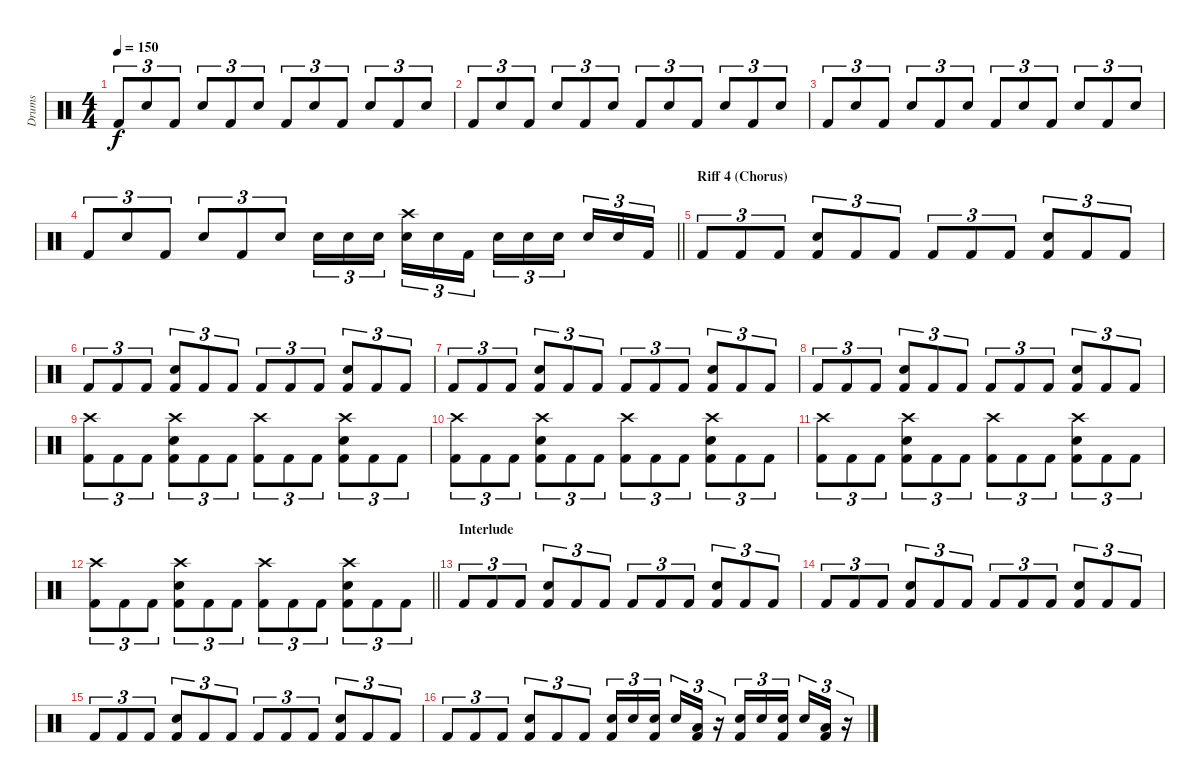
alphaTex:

\track ("Drums" "Drums") {instrument percussion}
\staff {score}
\articulation defaults
\ts (4 4)
\tempo 150
\clef neutral
\ks c "Kick (hit) 2".8{tu (3 2) dy f} "Snare (hit) 2".8{tu (3 2)} "Kick (hit) 2".8{tu (3 2)} "Snare (hit) 2".8{tu (3 2)} "Kick (hit) 2".8{tu (3 2)} "Snare (hit) 2".8{tu (3 2)} "Kick (hit) 2".8{tu (3 2)} "Snare (hit) 2".8{tu (3 2)} "Kick (hit) 2".8{tu (3 2)} "Snare (hit) 2".8{tu (3 2)} "Kick (hit) 2".8{tu (3 2)} "Snare (hit) 2".8{tu (3 2)}
|
"Kick (hit) 2".8{tu (3 2)} "Snare (hit) 2".8{tu (3 2)} "Kick (hit) 2".8{tu (3 2)} "Snare (hit) 2".8{tu (3 2)} "Kick (hit) 2".8{tu (3 2)} "Snare (hit) 2".8{tu (3 2)} "Kick (hit) 2".8{tu (3 2)} "Snare (hit) 2".8{tu (3 2)} "Kick (hit) 2".8{tu (3 2)} "Snare (hit) 2".8{tu (3 2)} "Kick (hit) 2".8{tu (3 2)} "Snare (hit) 2".8{tu (3 2)} |
"Kick (hit) 2".8{tu (3 2)} "Snare (hit) 2".8{tu (3 2)} "Kick (hit) 2".8{tu (3 2)} "Snare (hit) 2".8{tu (3 2)} "Kick (hit) 2".8{tu (3 2)} "Snare (hit) 2".8{tu (3 2)} "Kick (hit) 2".8{tu (3 2)} "Snare (hit) 2".8{tu (3 2)} "Kick (hit) 2".8{tu (3 2)} "Snare (hit) 2".8{tu (3 2)} "Kick (hit) 2".8{tu (3 2)} "Snare (hit) 2".8{tu (3 2)} |
\barLineRight lightlight "Kick (hit) 2".8{tu (3 2)} "Snare (hit) 2".8{tu (3 2)} "Kick (hit) 2".8{tu (3 2)} "Snare (hit) 2".8{tu (3 2)} "Kick (hit) 2".8{tu (3 2)} "Snare (hit) 2".8{tu (3 2)} "Snare (hit) 2".16{tu (3 2)} "Snare (hit) 2".16{tu (3 2)} "Snare (hit) 2".16{tu (3 2) beam splitsecondary}
("Crash high (hit)" "Snare (hit) 2").16{tu (3 2)} "Snare (hit) 2".16{tu (3 2)} "Kick (hit) 2".16{tu (3 2)} "Snare (hit) 2".16{tu (3 2)} "Snare (hit) 2".16{tu (3 2)} "Snare (hit) 2".16{tu (3 2) beam splitsecondary} "Snare (hit) 2".16{tu (3 2)} "Snare (hit) 2".16{tu (3 2)} "Kick (hit) 2".16{tu (3 2)} |
\section ("" "Riff 4 (Chorus)")
"Kick (hit) 2".8{tu (3 2)} "Kick (hit) 2".8{tu (3 2)} "Kick (hit) 2".8{tu (3 2)} ("Snare (hit) 2" "Kick (hit) 2").8{tu (3 2)} "Kick (hit) 2".8{tu (3 2)} "Kick (hit) 2".8{tu (3 2)} "Kick (hit) 2".8{tu (3 2)} "Kick (hit) 2".8{tu (3 2)} "Kick (hit) 2".8{tu (3 2)} ("Snare (hit) 2" "Kick (hit) 2").8{tu (3 2)} "Kick (hit) 2".8{tu (3 2)} "Kick (hit) 2".8{tu (3 2)} |
"Kick (hit) 2".8{tu (3 2)} "Kick (hit) 2".8{tu (3 2)} "Kick (hit) 2".8{tu (3 2)} ("Snare (hit) 2" "Kick (hit) 2").8{tu (3 2)} "Kick (hit) 2".8{tu (3 2)} "Kick (hit) 2".8{tu (3 2)} "Kick (hit) 2".8{tu (3 2)} "Kick (hit) 2".8{tu (3 2)} "Kick (hit) 2".8{tu (3 2)} ("Snare (hit) 2" "Kick (hit) 2").8{tu (3 2)} "Kick (hit) 2".8{tu (3 2)} "Kick (hit) 2".8{tu (3 2)} |
"Kick (hit) 2".8{tu (3 2)} "Kick (hit) 2".8{tu (3 2)} "Kick (hit) 2".8{tu (3 2)} ("Snare (hit) 2" "Kick (hit) 2").8{tu (3 2)} "Kick (hit) 2".8{tu (3 2)} "Kick (hit) 2".8{tu (3 2)} "Kick (hit) 2".8{tu (3 2)} "Kick (hit) 2".8{tu (3 2)} "Kick (hit) 2".8{tu (3 2)} ("Snare (hit) 2" "Kick (hit) 2").8{tu (3 2)} "Kick (hit) 2".8{tu (3 2)} "Kick (hit) 2".8{tu (3 2)} |
"Kick (hit) 2".8{tu (3 2)} "Kick (hit) 2".8{tu (3 2)} "Kick (hit) 2".8{tu (3 2)} ("Snare (hit) 2" "Kick (hit) 2").8{tu (3 2)} "Kick (hit) 2".8{tu (3 2)} "Kick (hit) 2".8{tu (3 2)} "Kick (hit) 2".8{tu (3 2)} "Kick (hit) 2".8{tu (3 2)} "Kick (hit) 2".8{tu (3 2)} ("Snare (hit) 2" "Kick (hit) 2").8{tu (3 2)} "Kick (hit) 2".8{tu (3 2)} "Kick (hit) 2".8{tu (3 2)} |
("Crash high (hit)" "Kick (hit) 2").8{tu (3 2)} "Kick (hit) 2".8{tu (3 2)} "Kick (hit) 2".8{tu (3 2)} ("Crash high (hit)" "Snare (hit) 2" "Kick (hit) 2").8{tu (3 2)} "Kick (hit) 2".8{tu (3 2)} "Kick (hit) 2".8{tu (3 2)} ("Crash high (hit)" "Kick (hit) 2").8{tu (3 2)} "Kick (hit) 2".8{tu (3 2)} "Kick (hit) 2".8{tu (3 2)} ("Crash high (hit)" "Snare (hit) 2" "Kick (hit) 2").8{tu (3 2)} "Kick (hit) 2".8{tu (3 2)} "Kick (hit) 2".8{tu (3 2)} |
("Crash high (hit)" "Kick (hit) 2").8{tu (3 2)} "Kick (hit) 2".8{tu (3 2)} "Kick (hit) 2".8{tu (3 2)} ("Crash high (hit)" "Snare (hit) 2" "Kick (hit) 2").8{tu (3 2)} "Kick (hit) 2".8{tu (3 2)} "Kick (hit) 2".8{tu (3 2)} ("Crash high (hit)" "Kick (hit) 2").8{tu (3 2)} "Kick (hit) 2".8{tu (3 2)} "Kick (hit) 2".8{tu (3 2)} ("Crash high (hit)" "Snare (hit) 2" "Kick (hit) 2").8{tu (3 2)} "Kick (hit) 2".8{tu (3 2)} "Kick (hit) 2".8{tu (3 2)} |
("Crash high (hit)" "Kick (hit) 2").8{tu (3 2)} "Kick (hit) 2".8{tu (3 2)} "Kick (hit) 2".8{tu (3 2)} ("Crash high (hit)" "Snare (hit) 2" "Kick (hit) 2").8{tu (3 2)} "Kick (hit) 2".8{tu (3 2)} "Kick (hit) 2".8{tu (3 2)} ("Crash high (hit)" "Kick (hit) 2").8{tu (3 2)} "Kick (hit) 2".8{tu (3 2)} "Kick (hit) 2".8{tu (3 2)} ("Crash high (hit)" "Snare (hit) 2" "Kick (hit) 2").8{tu (3 2)} "Kick (hit) 2".8{tu (3 2)} "Kick (hit) 2".8{tu (3 2)} |
\barLineRight lightlight
("Crash high (hit)" "Kick (hit) 2").8{tu (3 2)} "Kick (hit) 2".8{tu (3 2)} "Kick (hit) 2".8{tu (3 2)} ("Crash high (hit)" "Snare (hit) 2" "Kick (hit) 2").8{tu (3 2)} "Kick (hit) 2".8{tu (3 2)} "Kick (hit) 2".8{tu (3 2)} ("Crash high (hit)" "Kick (hit) 2").8{tu (3 2)} "Kick (hit) 2".8{tu (3 2)} "Kick (hit) 2".8{tu (3 2)} ("Crash high (hit)" "Snare (hit) 2" "Kick (hit) 2").8{tu (3 2)} "Kick (hit) 2".8{tu (3 2)} "Kick (hit) 2".8{tu (3 2)} |
\section ("" "Interlude")
"Kick (hit) 2".8{tu (3 2)} "Kick (hit) 2".8{tu (3 2)} "Kick (hit) 2".8{tu (3 2)} ("Snare (hit) 2" "Kick (hit) 2").8{tu (3 2)} "Kick (hit) 2".8{tu (3 2)} "Kick (hit) 2".8{tu (3 2)} "Kick (hit) 2".8{tu (3 2)} "Kick (hit) 2".8{tu (3 2)} "Kick (hit) 2".8{tu (3 2)} ("Snare (hit) 2" "Kick (hit) 2").8{tu (3 2)} "Kick (hit) 2".8{tu (3 2)} "Kick (hit) 2".8{tu (3 2)} |
"Kick (hit) 2".8{tu (3 2)} "Kick (hit) 2".8{tu (3 2)} "Kick (hit) 2".8{tu (3 2)} ("Snare (hit) 2" "Kick (hit) 2").8{tu (3 2)} "Kick (hit) 2".8{tu (3 2)} "Kick (hit) 2".8{tu (3 2)} "Kick (hit) 2".8{tu (3 2)} "Kick (hit) 2".8{tu (3 2)} "Kick (hit) 2".8{tu (3 2)} ("Snare (hit) 2" "Kick (hit) 2").8{tu (3 2)} "Kick (hit) 2".8{tu (3 2)} "Kick (hit) 2".8{tu (3 2)} |
"Kick (hit) 2".8{tu (3 2)} "Kick (hit) 2".8{tu (3 2)} "Kick (hit) 2".8{tu (3 2)} ("Snare (hit) 2" "Kick (hit) 2").8{tu (3 2)} "Kick (hit) 2".8{tu (3 2)} "Kick (hit) 2".8{tu (3 2)} "Kick (hit) 2".8{tu (3 2)} "Kick (hit) 2".8{tu (3 2)} "Kick (hit) 2".8{tu (3 2)} ("Snare (hit) 2" "Kick (hit) 2").8{tu (3 2)} "Kick (hit) 2".8{tu (3 2)} "Kick (hit) 2".8{tu (3 2)} |
"Kick (hit) 2".8{tu (3 2)} "Kick (hit) 2".8{tu (3 2)} "Kick (hit) 2".8{tu (3 2)} ("Snare (hit) 2" "Kick (hit) 2").8{tu (3 2)} "Kick (hit) 2".8{tu (3 2)} "Kick (hit) 2".8{tu (3 2)} ("Snare (hit) 2" "Kick (hit) 2").16{tu (3 2)} "Snare (hit) 2".16{tu (3 2)} ("Snare (hit) 2" "Kick (hit) 2").16{tu (3 2) beam splitsecondary} "Snare (hit) 2".16{tu (3 2)} ("Low Floor Tom (hit)" "Kick (hit) 2").16{tu (3 2)} r.16{tu (3 2)} ("Snare (hit) 2" "Kick (hit) 2").16{tu (3 2)} "Snare (hit) 2".16{tu (3 2)} ("Snare (hit) 2" "Kick (hit) 2").16{tu (3 2) beam splitsecondary} "Snare (hit) 2".16{tu (3 2)} ("Low Floor Tom (hit)" "Kick (hit) 2").16{tu (3 2)} r.16{tu (3 2)}
